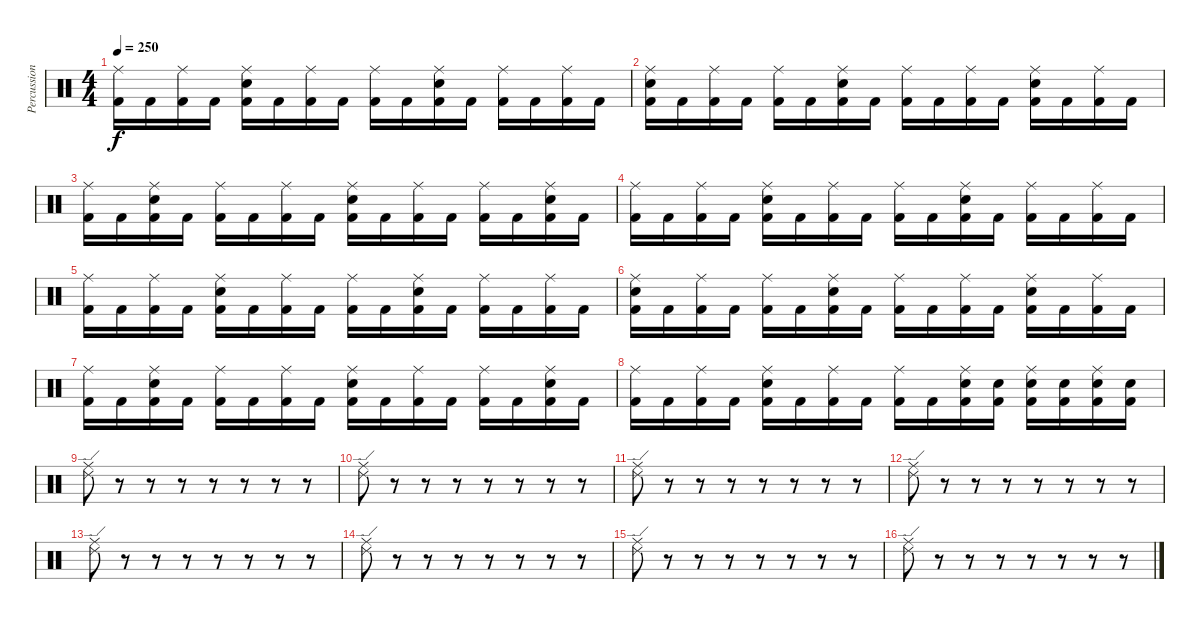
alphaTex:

\track ("Percussions" "Percussion") {instrument percussion}
\staff {score}
\articulation defaults
\ts (4 4)
\tempo 250
\clef neutral
\ks c
("Ride (middle)" "Kick (hit) 2").16{dy f} "Kick (hit) 2".16 ("Ride (middle)" "Kick (hit) 2").16 "Kick (hit) 2".16 ("Electric Snare (hit)" "Ride (middle)" "Kick (hit) 2").16 "Kick (hit) 2".16 ("Ride (middle)" "Kick (hit) 2").16 "Kick (hit) 2".16 ("Ride (middle)" "Kick (hit) 2").16 "Kick (hit) 2".16 ("Electric Snare (hit)" "Ride (middle)" "Kick (hit) 2").16 "Kick (hit) 2".16 ("Ride (middle)" "Kick (hit) 2").16 "Kick (hit) 2".16 ("Ride (middle)" "Kick (hit) 2").16 "Kick (hit) 2".16 |
("Electric Snare (hit)" "Ride (middle)" "Kick (hit) 2").16 "Kick (hit) 2".16 ("Ride (middle)" "Kick (hit) 2").16 "Kick (hit) 2".16 ("Ride (middle)" "Kick (hit) 2").16 "Kick (hit) 2".16 ("Electric Snare (hit)" "Ride (middle)" "Kick (hit) 2").16 "Kick (hit) 2".16 ("Ride (middle)" "Kick (hit) 2").16 "Kick (hit) 2".16 ("Ride (middle)" "Kick (hit) 2").16 "Kick (hit) 2".16 ("Electric Snare (hit)" "Ride (middle)" "Kick (hit) 2").16 "Kick (hit) 2".16 ("Ride (middle)" "Kick (hit) 2").16 "Kick (hit) 2".16 |
("Ride (middle)" "Kick (hit) 2").16 "Kick (hit) 2".16 ("Electric Snare (hit)" "Ride (middle)" "Kick (hit) 2").16 "Kick (hit) 2".16 ("Ride (middle)" "Kick (hit) 2").16 "Kick (hit) 2".16 ("Ride (middle)" "Kick (hit) 2").16 "Kick (hit) 2".16 ("Electric Snare (hit)" "Ride (middle)" "Kick (hit) 2").16 "Kick (hit) 2".16 ("Ride (middle)" "Kick (hit) 2").16 "Kick (hit) 2".16 ("Ride (middle)" "Kick (hit) 2").16 "Kick (hit) 2".16 ("Electric Snare (hit)" "Ride (middle)" "Kick (hit) 2").16 "Kick (hit) 2".16 |
("Ride (middle)" "Kick (hit) 2").16 "Kick (hit) 2".16 ("Ride (middle)" "Kick (hit) 2").16 "Kick (hit) 2".16 ("Electric Snare (hit)" "Ride (middle)" "Kick (hit) 2").16 "Kick (hit) 2".16 ("Ride (middle)" "Kick (hit) 2").16 "Kick (hit) 2".16 ("Ride (middle)" "Kick (hit) 2").16 "Kick (hit) 2".16 ("Electric Snare (hit)" "Ride (middle)" "Kick (hit) 2").16 "Kick (hit) 2".16 ("Ride (middle)" "Kick (hit) 2").16 "Kick (hit) 2".16 ("Ride (middle)" "Kick (hit) 2").16 "Kick (hit) 2".16 |
("Ride (middle)" "Kick (hit) 2").16 "Kick (hit) 2".16 ("Ride (middle)" "Kick (hit) 2").16 "Kick (hit) 2".16 ("Electric Snare (hit)" "Ride (middle)" "Kick (hit) 2").16 "Kick (hit) 2".16 ("Ride (middle)" "Kick (hit) 2").16 "Kick (hit) 2".16 ("Ride (middle)" "Kick (hit) 2").16 "Kick (hit) 2".16 ("Electric Snare (hit)" "Ride (middle)" "Kick (hit) 2").16 "Kick (hit) 2".16 ("Ride (middle)" "Kick (hit) 2").16 "Kick (hit) 2".16 ("Ride (middle)" "Kick (hit) 2").16 "Kick (hit) 2".16 |
("Electric Snare (hit)" "Ride (middle)" "Kick (hit) 2").16 "Kick (hit) 2".16 ("Ride (middle)" "Kick (hit) 2").16 "Kick (hit) 2".16 ("Ride (middle)" "Kick (hit) 2").16 "Kick (hit) 2".16 ("Electric Snare (hit)" "Ride (middle)" "Kick (hit) 2").16 "Kick (hit) 2".16 ("Ride (middle)" "Kick (hit) 2").16 "Kick (hit) 2".16 ("Ride (middle)" "Kick (hit) 2").16 "Kick (hit) 2".16 ("Electric Snare (hit)" "Ride (middle)" "Kick (hit) 2").16 "Kick (hit) 2".16 ("Ride (middle)" "Kick (hit) 2").16 "Kick (hit) 2".16 |
("Ride (middle)" "Kick (hit) 2").16 "Kick (hit) 2".16 ("Electric Snare (hit)" "Ride (middle)" "Kick (hit) 2").16 "Kick (hit) 2".16 ("Ride (middle)" "Kick (hit) 2").16 "Kick (hit) 2".16 ("Ride (middle)" "Kick (hit) 2").16 "Kick (hit) 2".16 ("Electric Snare (hit)" "Ride (middle)" "Kick (hit) 2").16 "Kick (hit) 2".16 ("Ride (middle)" "Kick (hit) 2").16 "Kick (hit) 2".16 ("Ride (middle)" "Kick (hit) 2").16 "Kick (hit) 2".16 ("Electric Snare (hit)" "Ride (middle)" "Kick (hit) 2").16 "Kick (hit) 2".16 |
("Ride (middle)" "Kick (hit) 2").16 "Kick (hit) 2".16 ("Ride (middle)" "Kick (hit) 2").16 "Kick (hit) 2".16 ("Electric Snare (hit)" "Ride (middle)" "Kick (hit) 2").16 "Kick (hit) 2".16 ("Ride (middle)" "Kick (hit) 2").16 "Kick (hit) 2".16 ("Ride (middle)" "Kick (hit) 2").16 "Kick (hit) 2".16 ("Electric Snare (hit)" "Ride (middle)" "Kick (hit) 2").16 ("Electric Snare (hit)" "Kick (hit) 2").16 ("Electric Snare (hit)" "Ride (middle)" "Kick (hit) 2").16 ("Electric Snare (hit)" "Kick (hit) 2").16 ("Electric Snare (hit)" "Ride (middle)" "Kick (hit) 2").16 ("Electric Snare (hit)" "Kick (hit) 2").16 |
("Ride (edge) 2" "Ride (middle)").8 r.8 r.8 r.8 r.8 r.8 r.8 r.8 |
("Ride (edge) 2" "Ride (middle)").8 r.8 r.8 r.8 r.8 r.8 r.8 r.8 |
("Ride (edge) 2" "Ride (middle)").8 r.8 r.8 r.8 r.8 r.8 r.8 r.8 |
("Ride (edge) 2" "Ride (middle)").8 r.8 r.8 r.8 r.8 r.8 r.8 r.8 |
("Ride (edge) 2" "Ride (middle)").8 r.8 r.8 r.8 r.8 r.8 r.8 r.8 |
("Ride (edge) 2" "Ride (middle)").8 r.8 r.8 r.8 r.8 r.8 r.8 r.8 |
("Ride (edge) 2" "Ride (middle)").8 r.8 r.8 r.8 r.8 r.8 r.8 r.8 |
("Ride (edge) 2" "Ride (middle)").8 r.8 r.8 r.8 r.8 r.8 r.8 r.8
